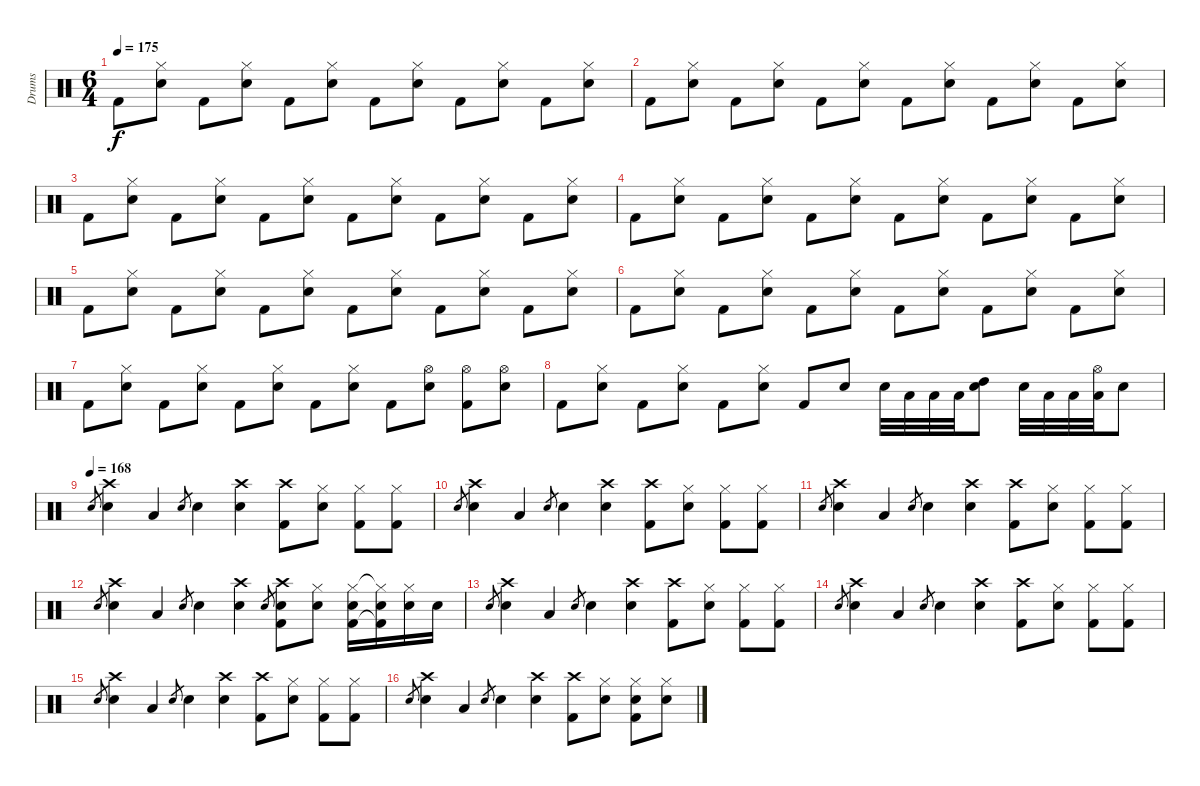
\track ("Drums" "Drums") {instrument percussion}
\staff {score}
\articulation defaults
\ts (6 4)
\tempo 175
\clef neutral
\ks c "Kick (hit) 2".8{dy f}
("Hi-Hat (closed)" "Snare (hit) 2").8 "Kick (hit) 2".8 ("Hi-Hat (closed)" "Snare (hit) 2").8 "Kick (hit) 2".8 ("Hi-Hat (closed)" "Snare (hit) 2").8 "Kick (hit) 2".8 ("Hi-Hat (closed)" "Snare (hit) 2").8 "Kick (hit) 2".8 ("Hi-Hat (closed)" "Snare (hit) 2").8 "Kick (hit) 2".8 ("Hi-Hat (closed)" "Snare (hit) 2").8 |
"Kick (hit) 2".8 ("Hi-Hat (closed)" "Snare (hit) 2").8 "Kick (hit) 2".8 ("Hi-Hat (closed)" "Snare (hit) 2").8 "Kick (hit) 2".8 ("Hi-Hat (closed)" "Snare (hit) 2").8 "Kick (hit) 2".8 ("Hi-Hat (closed)" "Snare (hit) 2").8 "Kick (hit) 2".8 ("Hi-Hat (closed)" "Snare (hit) 2").8 "Kick (hit) 2".8 ("Hi-Hat (closed)" "Snare (hit) 2").8 |
"Kick (hit) 2".8 ("Hi-Hat (closed)" "Snare (hit) 2").8 "Kick (hit) 2".8 ("Hi-Hat (closed)" "Snare (hit) 2").8 "Kick (hit) 2".8 ("Hi-Hat (closed)" "Snare (hit) 2").8 "Kick (hit) 2".8 ("Hi-Hat (closed)" "Snare (hit) 2").8 "Kick (hit) 2".8 ("Hi-Hat (closed)" "Snare (hit) 2").8 "Kick (hit) 2".8 ("Hi-Hat (closed)" "Snare (hit) 2").8 |
"Kick (hit) 2".8 ("Hi-Hat (closed)" "Snare (hit) 2").8 "Kick (hit) 2".8 ("Hi-Hat (closed)" "Snare (hit) 2").8 "Kick (hit) 2".8 ("Hi-Hat (closed)" "Snare (hit) 2").8 "Kick (hit) 2".8 ("Hi-Hat (closed)" "Snare (hit) 2").8 "Kick (hit) 2".8 ("Hi-Hat (closed)" "Snare (hit) 2").8 "Kick (hit) 2".8 ("Hi-Hat (closed)" "Snare (hit) 2").8 |
"Kick (hit) 2".8 ("Hi-Hat (closed)" "Snare (hit) 2").8 "Kick (hit) 2".8 ("Hi-Hat (closed)" "Snare (hit) 2").8 "Kick (hit) 2".8 ("Hi-Hat (closed)" "Snare (hit) 2").8 "Kick (hit) 2".8 ("Hi-Hat (closed)" "Snare (hit) 2").8 "Kick (hit) 2".8 ("Hi-Hat (closed)" "Snare (hit) 2").8 "Kick (hit) 2".8 ("Hi-Hat (closed)" "Snare (hit) 2").8 |
"Kick (hit) 2".8 ("Hi-Hat (closed)" "Snare (hit) 2").8 "Kick (hit) 2".8 ("Hi-Hat (closed)" "Snare (hit) 2").8 "Kick (hit) 2".8 ("Hi-Hat (closed)" "Snare (hit) 2").8 "Kick (hit) 2".8 ("Hi-Hat (closed)" "Snare (hit) 2").8 "Kick (hit) 2".8 ("Hi-Hat (closed)" "Snare (hit) 2").8 "Kick (hit) 2".8 ("Hi-Hat (closed)" "Snare (hit) 2").8 |
"Kick (hit) 2".8 ("Hi-Hat (closed)" "Snare (hit) 2").8 "Kick (hit) 2".8 ("Hi-Hat (closed)" "Snare (hit) 2").8 "Kick (hit) 2".8 ("Hi-Hat (closed)" "Snare (hit) 2").8 "Kick (hit) 2".8 ("Hi-Hat (closed)" "Snare (hit) 2").8 "Kick (hit) 2".8 ("Hi-Hat (open)" "Snare (hit) 2").8 ("Hi-Hat (open)" "Kick (hit) 2").8 ("Hi-Hat (open)" "Snare (hit) 2").8 |
"Kick (hit) 2".8 ("Hi-Hat (closed)" "Snare (hit) 2").8 "Kick (hit) 2".8 ("Hi-Hat (closed)" "Snare (hit) 2").8 "Kick (hit) 2".8 ("Hi-Hat (closed)" "Snare (hit) 2").8 "Kick (hit) 2".8 "Snare (hit) 2".8 "Snare (hit) 2".32 "Low Tom (hit)".32 "Low Floor Tom (hit)".32 "Low Floor Tom (hit)".32 ("High Tom (hit)" "Snare (hit) 2").8 "Snare (hit) 2".32 "Low Tom (hit)".32 "Low Floor Tom (hit)".32 ("Hi-Hat (open)" "Low Floor Tom (hit)").32 "Snare (hit) 2".8 |
\tempo (168)
"Snare (hit) 2".8{gr} ("Crash high (hit)" "Snare (hit) 2").4 "Low Floor Tom (hit)".4 "Snare (hit) 2".8{gr} "Snare (hit) 2".4 ("Crash high (hit)" "Snare (hit) 2").4 ("Crash high (hit)" "Kick (hit) 2").8 ("Hi-Hat (closed)" "Snare (hit) 2").8 ("Hi-Hat (closed)" "Kick (hit) 2").8 ("Hi-Hat (closed)" "Kick (hit) 2").8 |
"Snare (hit) 2".8{gr} ("Crash high (hit)" "Snare (hit) 2").4 "Low Floor Tom (hit)".4 "Snare (hit) 2".8{gr} "Snare (hit) 2".4 ("Crash high (hit)" "Snare (hit) 2").4 ("Crash high (hit)" "Kick (hit) 2").8 ("Hi-Hat (closed)" "Snare (hit) 2").8 ("Hi-Hat (closed)" "Kick (hit) 2").8 ("Hi-Hat (closed)" "Kick (hit) 2").8 |
"Snare (hit) 2".8{gr} ("Crash high (hit)" "Snare (hit) 2").4 "Low Floor Tom (hit)".4 "Snare (hit) 2".8{gr} "Snare (hit) 2".4 ("Crash high (hit)" "Snare (hit) 2").4 ("Crash high (hit)" "Kick (hit) 2").8 ("Hi-Hat (closed)" "Snare (hit) 2").8 ("Hi-Hat (closed)" "Kick (hit) 2").8 ("Hi-Hat (closed)" "Kick (hit) 2").8 |
"Snare (hit) 2".8{gr} ("Crash high (hit)" "Snare (hit) 2").4 "Low Floor Tom (hit)".4 "Snare (hit) 2".8{gr} "Snare (hit) 2".4 ("Crash high (hit)" "Snare (hit) 2").4 "Snare (hit) 2".8{gr} ("Crash high (hit)" "Snare (hit) 2" "Kick (hit) 2").8 ("Hi-Hat (closed)" "Snare (hit) 2").8 ("Hi-Hat (closed)" "Snare (hit) 2" "Kick (hit) 2").16 ("Hi-Hat (closed)"{t} "Snare (hit) 2" "Kick (hit) 2"{t}).16 ("Hi-Hat (closed)" "Snare (hit) 2").16 "Snare (hit) 2".16 |
"Snare (hit) 2".8{gr} ("Crash high (hit)" "Snare (hit) 2").4 "Low Floor Tom (hit)".4 "Snare (hit) 2".8{gr} "Snare (hit) 2".4 ("Crash high (hit)" "Snare (hit) 2").4 ("Crash high (hit)" "Kick (hit) 2").8 ("Hi-Hat (closed)" "Snare (hit) 2").8 ("Hi-Hat (closed)" "Kick (hit) 2").8 ("Hi-Hat (closed)" "Kick (hit) 2").8 |
"Snare (hit) 2".8{gr} ("Crash high (hit)" "Snare (hit) 2").4 "Low Floor Tom (hit)".4 "Snare (hit) 2".8{gr} "Snare (hit) 2".4 ("Crash high (hit)" "Snare (hit) 2").4 ("Crash high (hit)" "Kick (hit) 2").8 ("Hi-Hat (closed)" "Snare (hit) 2").8 ("Hi-Hat (closed)" "Kick (hit) 2").8 ("Hi-Hat (closed)" "Kick (hit) 2").8 |
"Snare (hit) 2".8{gr} ("Crash high (hit)" "Snare (hit) 2").4 "Low Floor Tom (hit)".4 "Snare (hit) 2".8{gr} "Snare (hit) 2".4 ("Crash high (hit)" "Snare (hit) 2").4 ("Crash high (hit)" "Kick (hit) 2").8 ("Hi-Hat (closed)" "Snare (hit) 2").8 ("Hi-Hat (closed)" "Kick (hit) 2").8 ("Hi-Hat (closed)" "Kick (hit) 2").8 |
"Snare (hit) 2".8{gr} ("Crash high (hit)" "Snare (hit) 2").4 "Low Floor Tom (hit)".4 "Snare (hit) 2".8{gr} "Snare (hit) 2".4 ("Crash high (hit)" "Snare (hit) 2").4 ("Crash high (hit)" "Kick (hit) 2").8 ("Hi-Hat (closed)" "Snare (hit) 2").8 ("Hi-Hat (closed)" "Snare (hit) 2" "Kick (hit) 2").8 ("Hi-Hat (closed)" "Snare (hit) 2").8
